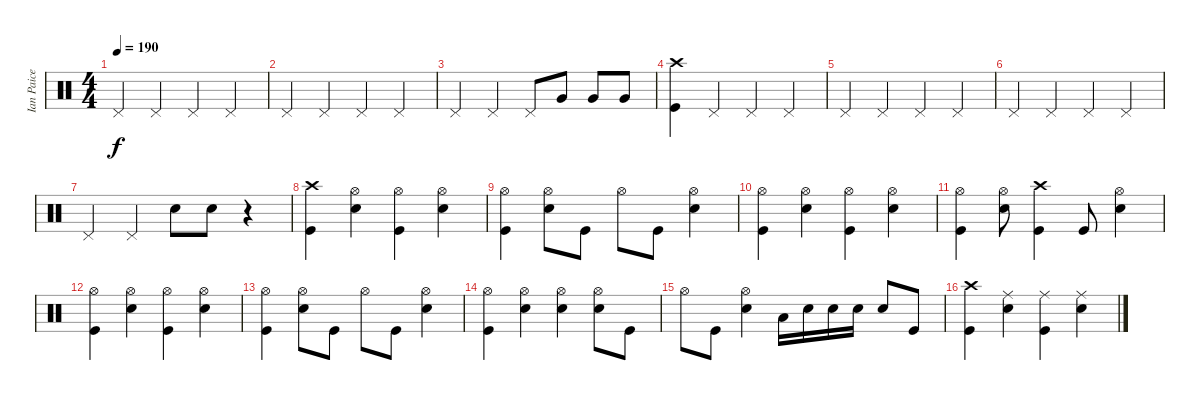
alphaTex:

\track ("Ian Paice" "Ian Paice") {instrument percussion}
\staff {score}
\articulation defaults
\ts (4 4)
\tempo 190
\clef neutral
\ks c "Pedal Hi-Hat (hit)".4{dy f} "Pedal Hi-Hat (hit)".4 "Pedal Hi-Hat (hit)".4 "Pedal Hi-Hat (hit)".4
|
"Pedal Hi-Hat (hit)".4 "Pedal Hi-Hat (hit)".4 "Pedal Hi-Hat (hit)".4 "Pedal Hi-Hat (hit)".4 |
"Pedal Hi-Hat (hit)".4 "Pedal Hi-Hat (hit)".4 "Pedal Hi-Hat (hit)".8 "Very Low Tom (hit)".8 "Very Low Tom (hit)".8 "Very Low Tom (hit)".8 |
("Crash high (hit)" "Kick (hit)").4 "Pedal Hi-Hat (hit)".4 "Pedal Hi-Hat (hit)".4 "Pedal Hi-Hat (hit)".4 |
"Pedal Hi-Hat (hit)".4 "Pedal Hi-Hat (hit)".4 "Pedal Hi-Hat (hit)".4 "Pedal Hi-Hat (hit)".4 |
"Pedal Hi-Hat (hit)".4 "Pedal Hi-Hat (hit)".4 "Pedal Hi-Hat (hit)".4 "Pedal Hi-Hat (hit)".4 |
"Pedal Hi-Hat (hit)".4 "Pedal Hi-Hat (hit)".4 "Snare (hit) 2".8 "Snare (hit) 2".8 r.4 |
("Kick (hit)" "Crash high (hit)").4 ("Hi-Hat (open)" "Snare (hit) 2").4 ("Hi-Hat (open)" "Kick (hit)").4 ("Snare (hit) 2" "Hi-Hat (open)").4 |
("Hi-Hat (open)" "Kick (hit)").4 ("Hi-Hat (open)" "Snare (hit) 2").8 "Kick (hit)".8 "Hi-Hat (open)".8 "Kick (hit)".8 ("Hi-Hat (open)" "Snare (hit) 2").4 |
("Hi-Hat (open)" "Kick (hit)").4 ("Snare (hit) 2" "Hi-Hat (open)").4 ("Kick (hit)" "Hi-Hat (open)").4 ("Hi-Hat (open)" "Snare (hit) 2").4 |
("Hi-Hat (open)" "Kick (hit)").4 ("Hi-Hat (open)" "Snare (hit) 2").8 ("Crash high (hit)" "Kick (hit)").4 "Kick (hit)".8 ("Hi-Hat (open)" "Snare (hit) 2").4 |
("Hi-Hat (open)" "Kick (hit)").4 ("Snare (hit) 2" "Hi-Hat (open)").4 ("Kick (hit)" "Hi-Hat (open)").4 ("Snare (hit) 2" "Hi-Hat (open)").4 |
("Kick (hit)" "Hi-Hat (open)").4 ("Hi-Hat (open)" "Snare (hit) 2").8 "Kick (hit)".8 "Hi-Hat (open)".8 "Kick (hit)".8 ("Snare (hit) 2" "Hi-Hat (open)").4 |
("Hi-Hat (open)" "Kick (hit)").4 ("Hi-Hat (open)" "Snare (hit) 2").4 ("Snare (hit) 2" "Hi-Hat (open)").4 ("Snare (hit) 2" "Hi-Hat (open)").8 "Kick (hit)".8 |
"Hi-Hat (open)".8 "Kick (hit)".8 ("Snare (hit) 2" "Hi-Hat (open)").4 "Low Tom (hit)".16 "Snare (hit) 2".16 "Snare (hit) 2".16 "Snare (hit) 2".16 "Snare (hit) 2".8 "Kick (hit)".8 |
("Crash high (hit)" "Kick (hit)").4 ("Snare (hit) 2" "Ride (middle)").4 ("Kick (hit)" "Ride (middle)").4 ("Ride (middle)" "Snare (hit) 2").4
